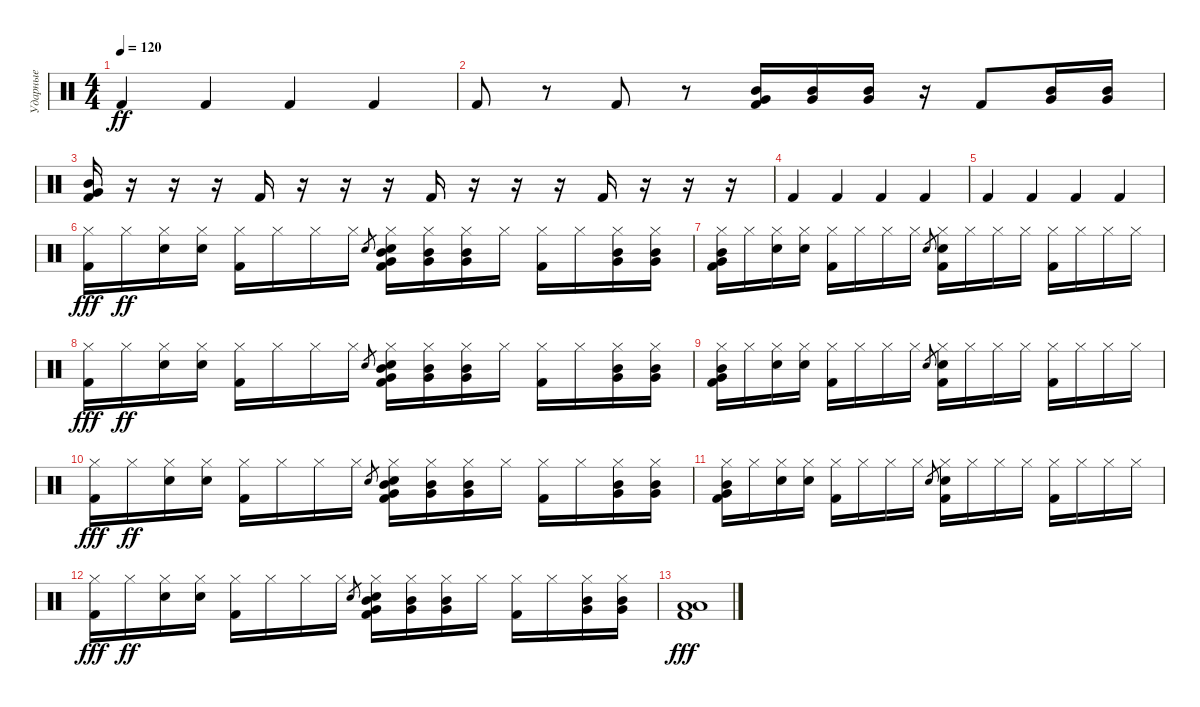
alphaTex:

\track ("Ударные" "Ударные") {instrument percussion}
\staff {score}
\articulation defaults
\ts (4 4)
\tempo 120
\clef neutral
\ks c "Kick (hit) 2".4{dy ff} "Kick (hit) 2".4 "Kick (hit) 2".4 "Kick (hit) 2".4
|
"Kick (hit) 2".8 r.8 "Kick (hit) 2".8 r.8 ("Mid Tom (hit)" "Very Low Tom (hit)" "Kick (hit) 2").16 ("Mid Tom (hit)" "Very Low Tom (hit)").16 ("Mid Tom (hit)" "Very Low Tom (hit)").16 r.16 "Kick (hit) 2".8 ("Mid Tom (hit)" "Very Low Tom (hit)").16 ("Mid Tom (hit)" "Very Low Tom (hit)").16 |
("Mid Tom (hit)" "Very Low Tom (hit)" "Kick (hit) 2").16 r.16 r.16 r.16 "Kick (hit) 2".16 r.16 r.16 r.16 "Kick (hit) 2".16 r.16 r.16 r.16 "Kick (hit) 2".16 r.16 r.16 r.16 |
"Kick (hit) 2".4 "Kick (hit) 2".4 "Kick (hit) 2".4 "Kick (hit) 2".4 |
"Kick (hit) 2".4 "Kick (hit) 2".4 "Kick (hit) 2".4 "Kick (hit) 2".4 |
("Hi-Hat (closed)" "Kick (hit) 2").16{dy fff} "Hi-Hat (closed)".16{dy ff} ("Hi-Hat (closed)" "Electric Snare (hit)").16 ("Hi-Hat (closed)" "Electric Snare (hit)").16 ("Hi-Hat (closed)" "Kick (hit) 2").16 "Hi-Hat (closed)".16 "Hi-Hat (closed)".16 "Hi-Hat (closed)".16 "Electric Snare (hit)".8{gr} ("Hi-Hat (closed)" "Electric Snare (hit)" "Kick (hit) 2" "Mid Tom (hit)" "Very Low Tom (hit)").16 ("Hi-Hat (closed)" "Mid Tom (hit)" "Very Low Tom (hit)").16 ("Hi-Hat (closed)" "Mid Tom (hit)" "Very Low Tom (hit)").16 "Hi-Hat (closed)".16 ("Hi-Hat (closed)" "Kick (hit) 2").16 "Hi-Hat (closed)".16 ("Hi-Hat (closed)" "Mid Tom (hit)" "Very Low Tom (hit)").16 ("Hi-Hat (closed)" "Mid Tom (hit)" "Very Low Tom (hit)").16 |
("Hi-Hat (closed)" "Kick (hit) 2" "Mid Tom (hit)" "Very Low Tom (hit)").16 "Hi-Hat (closed)".16 ("Hi-Hat (closed)" "Electric Snare (hit)").16 ("Hi-Hat (closed)" "Electric Snare (hit)").16 ("Hi-Hat (closed)" "Kick (hit) 2").16 "Hi-Hat (closed)".16 "Hi-Hat (closed)".16 "Hi-Hat (closed)".16 "Electric Snare (hit)".8{gr} ("Hi-Hat (closed)" "Electric Snare (hit)" "Kick (hit) 2").16 "Hi-Hat (closed)".16 "Hi-Hat (closed)".16 "Hi-Hat (closed)".16 ("Hi-Hat (closed)" "Kick (hit) 2").16 "Hi-Hat (closed)".16 "Hi-Hat (closed)".16 "Hi-Hat (closed)".16 |
("Hi-Hat (closed)" "Kick (hit) 2").16{dy fff} "Hi-Hat (closed)".16{dy ff} ("Hi-Hat (closed)" "Electric Snare (hit)").16 ("Hi-Hat (closed)" "Electric Snare (hit)").16 ("Hi-Hat (closed)" "Kick (hit) 2").16 "Hi-Hat (closed)".16 "Hi-Hat (closed)".16 "Hi-Hat (closed)".16 "Electric Snare (hit)".8{gr} ("Hi-Hat (closed)" "Electric Snare (hit)" "Kick (hit) 2" "Mid Tom (hit)" "Very Low Tom (hit)").16 ("Hi-Hat (closed)" "Mid Tom (hit)" "Very Low Tom (hit)").16 ("Hi-Hat (closed)" "Mid Tom (hit)" "Very Low Tom (hit)").16 "Hi-Hat (closed)".16 ("Hi-Hat (closed)" "Kick (hit) 2").16 "Hi-Hat (closed)".16 ("Hi-Hat (closed)" "Mid Tom (hit)" "Very Low Tom (hit)").16 ("Hi-Hat (closed)" "Mid Tom (hit)" "Very Low Tom (hit)").16 |
("Hi-Hat (closed)" "Kick (hit) 2" "Mid Tom (hit)" "Very Low Tom (hit)").16 "Hi-Hat (closed)".16 ("Hi-Hat (closed)" "Electric Snare (hit)").16 ("Hi-Hat (closed)" "Electric Snare (hit)").16 ("Hi-Hat (closed)" "Kick (hit) 2").16 "Hi-Hat (closed)".16 "Hi-Hat (closed)".16 "Hi-Hat (closed)".16 "Electric Snare (hit)".8{gr} ("Hi-Hat (closed)" "Electric Snare (hit)" "Kick (hit) 2").16 "Hi-Hat (closed)".16 "Hi-Hat (closed)".16 "Hi-Hat (closed)".16 ("Hi-Hat (closed)" "Kick (hit) 2").16 "Hi-Hat (closed)".16 "Hi-Hat (closed)".16 "Hi-Hat (closed)".16 |
("Hi-Hat (closed)" "Kick (hit) 2").16{dy fff} "Hi-Hat (closed)".16{dy ff} ("Hi-Hat (closed)" "Electric Snare (hit)").16 ("Hi-Hat (closed)" "Electric Snare (hit)").16 ("Hi-Hat (closed)" "Kick (hit) 2").16 "Hi-Hat (closed)".16 "Hi-Hat (closed)".16 "Hi-Hat (closed)".16 "Electric Snare (hit)".8{gr} ("Hi-Hat (closed)" "Electric Snare (hit)" "Kick (hit) 2" "Mid Tom (hit)" "Very Low Tom (hit)").16 ("Hi-Hat (closed)" "Mid Tom (hit)" "Very Low Tom (hit)").16 ("Hi-Hat (closed)" "Mid Tom (hit)" "Very Low Tom (hit)").16 "Hi-Hat (closed)".16 ("Hi-Hat (closed)" "Kick (hit) 2").16 "Hi-Hat (closed)".16 ("Hi-Hat (closed)" "Mid Tom (hit)" "Very Low Tom (hit)").16 ("Hi-Hat (closed)" "Mid Tom (hit)" "Very Low Tom (hit)").16 |
("Hi-Hat (closed)" "Kick (hit) 2" "Mid Tom (hit)" "Very Low Tom (hit)").16 "Hi-Hat (closed)".16 ("Hi-Hat (closed)" "Electric Snare (hit)").16 ("Hi-Hat (closed)" "Electric Snare (hit)").16 ("Hi-Hat (closed)" "Kick (hit) 2").16 "Hi-Hat (closed)".16 "Hi-Hat (closed)".16 "Hi-Hat (closed)".16 "Electric Snare (hit)".8{gr} ("Hi-Hat (closed)" "Electric Snare (hit)" "Kick (hit) 2").16 "Hi-Hat (closed)".16 "Hi-Hat (closed)".16 "Hi-Hat (closed)".16 ("Hi-Hat (closed)" "Kick (hit) 2").16 "Hi-Hat (closed)".16 "Hi-Hat (closed)".16 "Hi-Hat (closed)".16 |
("Hi-Hat (closed)" "Kick (hit) 2").16{dy fff} "Hi-Hat (closed)".16{dy ff} ("Hi-Hat (closed)" "Electric Snare (hit)").16 ("Hi-Hat (closed)" "Electric Snare (hit)").16 ("Hi-Hat (closed)" "Kick (hit) 2").16 "Hi-Hat (closed)".16 "Hi-Hat (closed)".16 "Hi-Hat (closed)".16 "Electric Snare (hit)".8{gr} ("Hi-Hat (closed)" "Electric Snare (hit)" "Kick (hit) 2" "Mid Tom (hit)" "Very Low Tom (hit)").16 ("Hi-Hat (closed)" "Mid Tom (hit)" "Very Low Tom (hit)").16 ("Hi-Hat (closed)" "Mid Tom (hit)" "Very Low Tom (hit)").16 "Hi-Hat (closed)".16 ("Hi-Hat (closed)" "Kick (hit) 2").16 "Hi-Hat (closed)".16 ("Hi-Hat (closed)" "Mid Tom (hit)" "Very Low Tom (hit)").16 ("Hi-Hat (closed)" "Mid Tom (hit)" "Very Low Tom (hit)").16 |
("Kick (hit) 2" "Low Floor Tom (hit)" "Low Floor Tom (hit)").1{dy fff}
